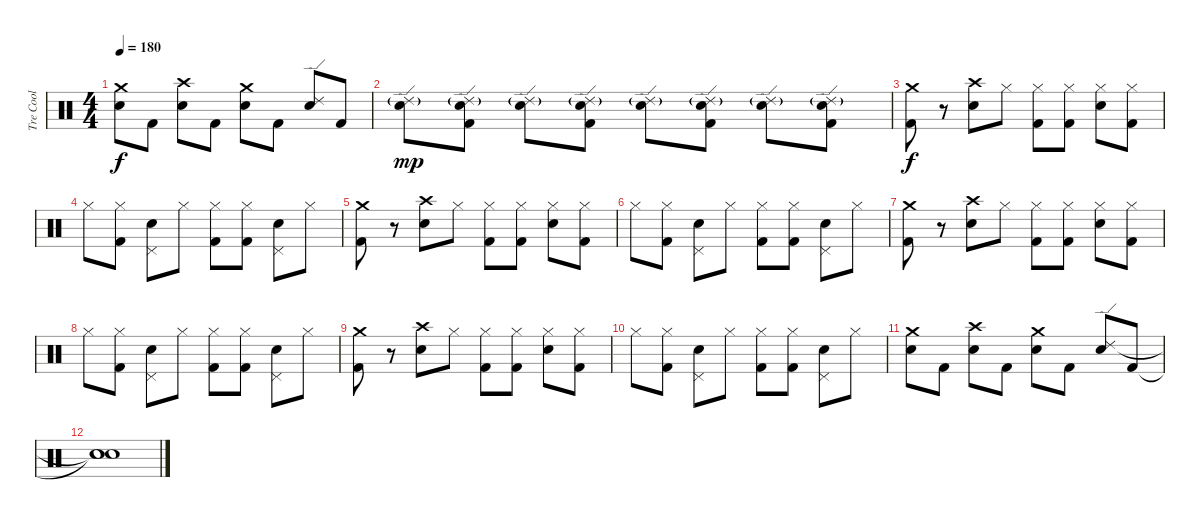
\track ("Tre Cool" "Tre Cool") {instrument percussion}
\staff {score}
\articulation defaults
\ts (4 4)
\tempo 180
\clef neutral
\ks c
("Snare (hit) 2" "Crash medium (hit)").8{dy f} "Kick (hit) 2".8 ("Snare (hit) 2" "Crash high (hit)").8 "Kick (hit) 2".8 ("Snare (hit) 2" "Crash medium (hit)").8 "Kick (hit) 2".8 ("Snare (hit) 2" "Ride (edge) 2").8 "Kick (hit) 2".8 |
("Ride (edge) 2"{g} "Snare (hit) 2").8{dy mp} ("Kick (hit) 2" "Ride (edge) 2"{g} "Snare (hit) 2").8 ("Ride (edge) 2"{g} "Snare (hit) 2").8 ("Kick (hit) 2" "Ride (edge) 2"{g} "Snare (hit) 2").8 ("Ride (edge) 2"{g} "Snare (hit) 2").8 ("Kick (hit) 2" "Ride (edge) 2"{g} "Snare (hit) 2").8 ("Ride (edge) 2"{g} "Snare (hit) 2").8 ("Kick (hit) 2" "Ride (edge) 2"{g} "Snare (hit) 2").8 |
("Kick (hit) 2" "Crash medium (hit)").8{dy f} r.8 ("Snare (hit) 2" "Crash high (hit)").8 "Hi-Hat (closed)".8 ("Kick (hit) 2" "Hi-Hat (closed)").8 ("Kick (hit) 2" "Hi-Hat (closed)").8 ("Snare (hit) 2" "Hi-Hat (closed)").8 ("Kick (hit) 2" "Hi-Hat (closed)").8 |
"Hi-Hat (closed)".8 ("Kick (hit) 2" "Hi-Hat (closed)").8 ("Snare (hit) 2" "Pedal Hi-Hat (hit)").8 "Hi-Hat (closed)".8 ("Kick (hit) 2" "Hi-Hat (closed)").8 ("Kick (hit) 2" "Hi-Hat (closed)").8 ("Snare (hit) 2" "Pedal Hi-Hat (hit)").8 "Hi-Hat (closed)".8 |
("Kick (hit) 2" "Crash medium (hit)").8 r.8 ("Snare (hit) 2" "Crash high (hit)").8 "Hi-Hat (closed)".8 ("Kick (hit) 2" "Hi-Hat (closed)").8 ("Kick (hit) 2" "Hi-Hat (closed)").8 ("Snare (hit) 2" "Hi-Hat (closed)").8 ("Kick (hit) 2" "Hi-Hat (closed)").8 |
"Hi-Hat (closed)".8 ("Kick (hit) 2" "Hi-Hat (closed)").8 ("Snare (hit) 2" "Pedal Hi-Hat (hit)").8 "Hi-Hat (closed)".8 ("Kick (hit) 2" "Hi-Hat (closed)").8 ("Kick (hit) 2" "Hi-Hat (closed)").8 ("Snare (hit) 2" "Pedal Hi-Hat (hit)").8 "Hi-Hat (closed)".8 |
("Kick (hit) 2" "Crash medium (hit)").8 r.8 ("Snare (hit) 2" "Crash high (hit)").8 "Hi-Hat (closed)".8 ("Kick (hit) 2" "Hi-Hat (closed)").8 ("Kick (hit) 2" "Hi-Hat (closed)").8 ("Snare (hit) 2" "Hi-Hat (closed)").8 ("Kick (hit) 2" "Hi-Hat (closed)").8 |
"Hi-Hat (closed)".8 ("Kick (hit) 2" "Hi-Hat (closed)").8 ("Snare (hit) 2" "Pedal Hi-Hat (hit)").8 "Hi-Hat (closed)".8 ("Kick (hit) 2" "Hi-Hat (closed)").8 ("Kick (hit) 2" "Hi-Hat (closed)").8 ("Snare (hit) 2" "Pedal Hi-Hat (hit)").8 "Hi-Hat (closed)".8 |
("Kick (hit) 2" "Crash medium (hit)").8 r.8 ("Snare (hit) 2" "Crash high (hit)").8 "Hi-Hat (closed)".8 ("Kick (hit) 2" "Hi-Hat (closed)").8 ("Kick (hit) 2" "Hi-Hat (closed)").8 ("Snare (hit) 2" "Hi-Hat (closed)").8 ("Kick (hit) 2" "Hi-Hat (closed)").8 |
"Hi-Hat (closed)".8 ("Kick (hit) 2" "Hi-Hat (closed)").8 ("Snare (hit) 2" "Pedal Hi-Hat (hit)").8 "Hi-Hat (closed)".8 ("Kick (hit) 2" "Hi-Hat (closed)").8 ("Kick (hit) 2" "Hi-Hat (closed)").8 ("Snare (hit) 2" "Pedal Hi-Hat (hit)").8 "Hi-Hat (closed)".8 |
("Snare (hit) 2" "Crash medium (hit)").8 "Kick (hit) 2".8 ("Snare (hit) 2" "Crash high (hit)").8 "Kick (hit) 2".8 ("Snare (hit) 2" "Crash medium (hit)").8 "Kick (hit) 2".8 ("Snare (hit) 2" "Ride (edge) 2").8 "Kick (hit) 2".8 |
("Snare (hit)"{t} "Snare (hit)"{t} "Snare (hit)").1
